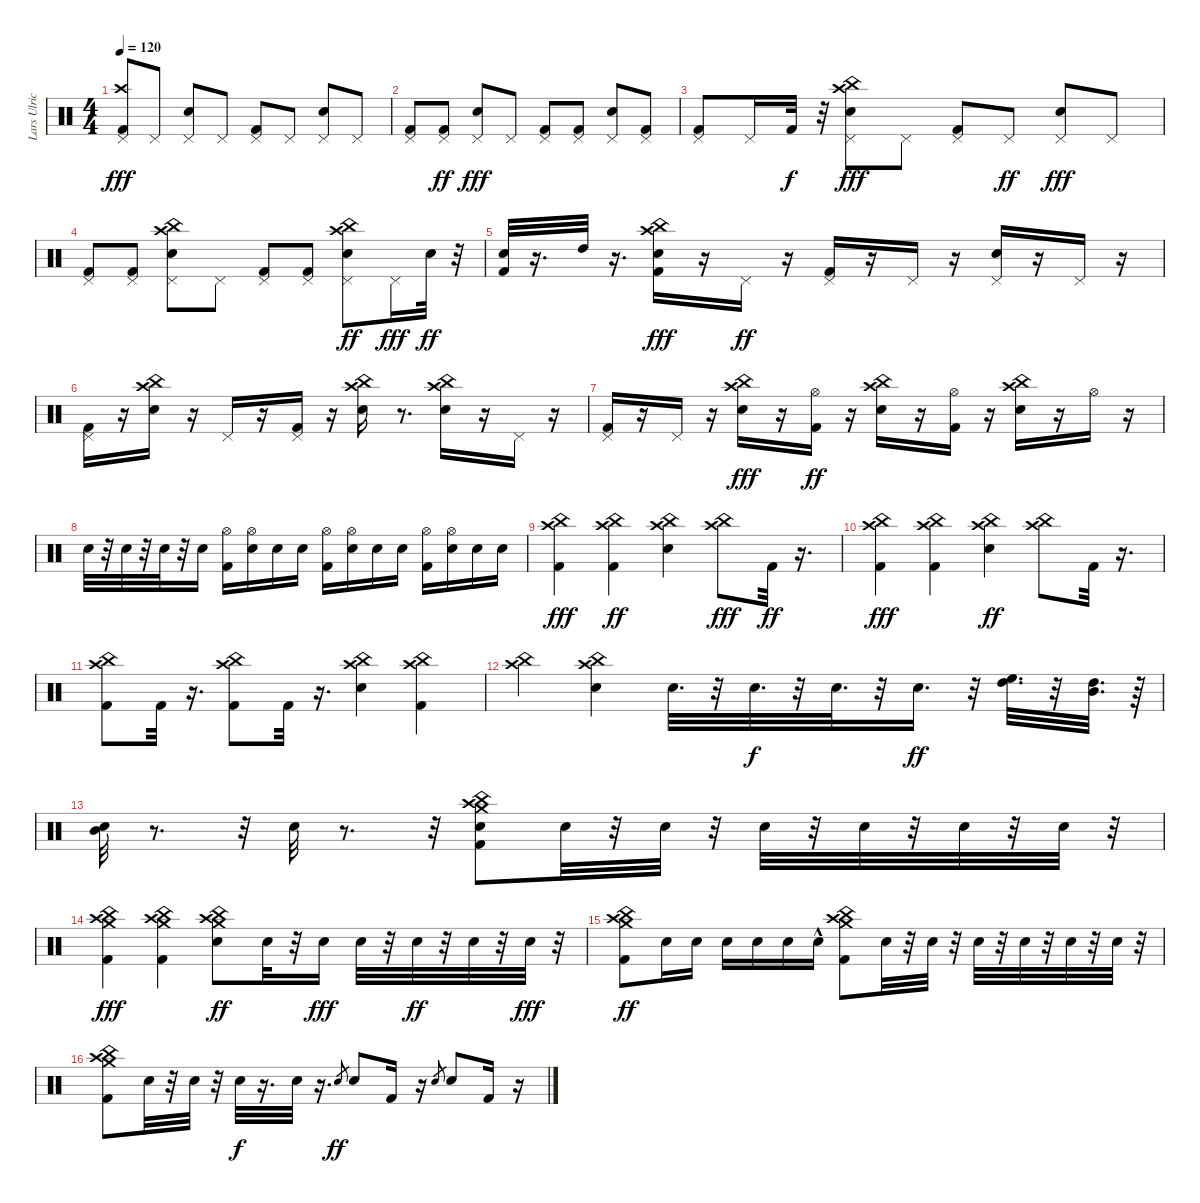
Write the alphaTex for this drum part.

\track ("Lars Ulrich" "Lars Ulric") {instrument percussion}
\staff {score}
\articulation defaults
\ts (4 4)
\tempo 120
\clef neutral
\ks c
("Kick (hit) 2" "Crash high (hit)" "Pedal Hi-Hat (hit)").8{dy fff} "Pedal Hi-Hat (hit)".8 ("Snare (hit) 2" "Pedal Hi-Hat (hit)").8 "Pedal Hi-Hat (hit)".8 ("Kick (hit) 2" "Pedal Hi-Hat (hit)").8 "Pedal Hi-Hat (hit)".8 ("Snare (hit) 2" "Pedal Hi-Hat (hit)").8 "Pedal Hi-Hat (hit)".8 |
("Kick (hit) 2" "Pedal Hi-Hat (hit)").8 ("Kick (hit) 2" "Pedal Hi-Hat (hit)").8{dy ff} ("Snare (hit) 2" "Pedal Hi-Hat (hit)").8{dy fff} "Pedal Hi-Hat (hit)".8 ("Kick (hit) 2" "Pedal Hi-Hat (hit)").8 ("Kick (hit) 2" "Pedal Hi-Hat (hit)").8 ("Snare (hit) 2" "Pedal Hi-Hat (hit)").8 ("Kick (hit) 2" "Pedal Hi-Hat (hit)").8 |
("Kick (hit) 2" "Pedal Hi-Hat (hit)").8 "Pedal Hi-Hat (hit)".16 "Kick (hit) 2".32{dy f} r.32 ("China (hit)" "Crash high (hit)" "Snare (hit) 2" "Pedal Hi-Hat (hit)").8{dy fff} "Pedal Hi-Hat (hit)".8 ("Kick (hit) 2" "Pedal Hi-Hat (hit)").8 "Pedal Hi-Hat (hit)".8{dy ff} ("Snare (hit) 2" "Pedal Hi-Hat (hit)").8{dy fff} "Pedal Hi-Hat (hit)".8 |
("Kick (hit) 2" "Pedal Hi-Hat (hit)").8 ("Kick (hit) 2" "Pedal Hi-Hat (hit)").8 ("China (hit)" "Snare (hit) 2" "Crash high (hit)" "Pedal Hi-Hat (hit)").8 "Pedal Hi-Hat (hit)".8 ("Kick (hit) 2" "Pedal Hi-Hat (hit)").8 ("Kick (hit) 2" "Pedal Hi-Hat (hit)").8 ("China (hit)" "Crash high (hit)" "Pedal Hi-Hat (hit)" "Snare (hit) 2").8{dy ff} "Pedal Hi-Hat (hit)".16{dy fff} "Snare (hit) 2".32{dy ff} r.32 |
("Kick (hit) 2" "Snare (hit) 2").32 r.16{d} "High Tom (hit)".32 r.16{d} ("China (hit)" "Snare (hit) 2" "Kick (hit) 2" "Crash high (hit)").16{dy fff} r.16 "Pedal Hi-Hat (hit)".16{dy ff} r.16 ("Pedal Hi-Hat (hit)" "Kick (hit) 2").16 r.16 "Pedal Hi-Hat (hit)".16 r.16 ("Pedal Hi-Hat (hit)" "Snare (hit) 2").16 r.16 "Pedal Hi-Hat (hit)".16 r.16 |
("Pedal Hi-Hat (hit)" "Kick (hit) 2").16 r.16 ("China (hit)" "Crash high (hit)" "Snare (hit) 2").16 r.16 "Pedal Hi-Hat (hit)".16 r.16 ("Pedal Hi-Hat (hit)" "Kick (hit) 2").16 r.16 ("China (hit)" "Crash high (hit)" "Snare (hit) 2").16 r.8{d} ("China (hit)" "Crash high (hit)" "Snare (hit) 2").16 r.16 "Pedal Hi-Hat (hit)".16 r.16 |
("Pedal Hi-Hat (hit)" "Kick (hit) 2").16 r.16 "Pedal Hi-Hat (hit)".16 r.16 ("China (hit)" "Crash high (hit)" "Snare (hit) 2").16{dy fff} r.16 ("Kick (hit) 2" "Hi-Hat (open)").16{dy ff} r.16 ("China (hit)" "Snare (hit) 2" "Crash high (hit)").16 r.16 ("Kick (hit) 2" "Hi-Hat (open)").16 r.16 ("China (hit)" "Snare (hit) 2" "Crash high (hit)").16 r.16 "Hi-Hat (open)".16 r.16 |
"Snare (hit) 2".32 r.32 "Snare (hit) 2".32 r.32 "Snare (hit) 2".32 r.32 "Snare (hit) 2".16 ("Kick (hit) 2" "Hi-Hat (open)").16 ("Hi-Hat (open)" "Snare (hit) 2").16 "Snare (hit) 2".16 "Snare (hit) 2".16 ("Kick (hit) 2" "Hi-Hat (open)").16 ("Hi-Hat (open)" "Snare (hit) 2").16 "Snare (hit) 2".16 "Snare (hit) 2".16 ("Kick (hit) 2" "Hi-Hat (open)").16 ("Hi-Hat (open)" "Snare (hit) 2").16 "Snare (hit) 2".16 "Snare (hit) 2".16 |
("Kick (hit) 2" "China (hit)" "Crash high (hit)").4{dy fff} ("Kick (hit) 2" "China (hit)" "Crash high (hit)").4{dy ff} ("China (hit)" "Crash high (hit)" "Snare (hit) 2").4 ("China (hit)" "Crash high (hit)").8{dy fff} "Kick (hit) 2".32{dy ff} r.16{d} |
("Kick (hit) 2" "Crash high (hit)" "China (hit)").4{dy fff} ("Kick (hit) 2" "China (hit)" "Crash high (hit)").4 ("Snare (hit) 2" "China (hit)" "Crash high (hit)").4{dy ff} ("China (hit)" "Crash high (hit)").8 "Kick (hit) 2".32 r.16{d} |
("Kick (hit) 2" "China (hit)" "Crash high (hit)").8 "Kick (hit) 2".32 r.16{d} ("Kick (hit) 2" "China (hit)" "Crash high (hit)").8 "Kick (hit) 2".32 r.16{d} ("Snare (hit) 2" "Crash high (hit)" "China (hit)").4 ("Kick (hit) 2" "Crash high (hit)" "China (hit)").4 |
("Crash high (hit)" "China (hit)").4 ("Snare (hit) 2" "Crash high (hit)" "China (hit)").4 "Snare (hit) 2".32{d} r.32 "Snare (hit) 2".32{d dy f} r.32 "Snare (hit) 2".32{d} r.32 "Snare (hit) 2".16{d dy ff} r.32 ("High Tom (hit)" "High Floor Tom (hit)").32{d} r.32 ("Mid Tom (hit)" "High Tom (hit)").32{d} r.64 |
("Snare (hit) 2" "Mid Tom (hit)").32 r.8{d} r.32 "Snare (hit) 2".32 r.8{d} r.32 ("Crash medium (hit)" "China (hit)" "Crash high (hit)" "Kick (hit) 2" "Snare (hit) 2").8 "Snare (hit) 2".32 r.32 "Snare (hit) 2".32 r.32 "Snare (hit) 2".32 r.32 "Snare (hit) 2".32 r.32 "Snare (hit) 2".32 r.32 "Snare (hit) 2".32 r.32 |
("Crash medium (hit)" "Kick (hit) 2" "Crash high (hit)" "China (hit)").4{dy fff} ("Crash medium (hit)" "Kick (hit) 2" "China (hit)" "Crash high (hit)").4 ("Crash medium (hit)" "Snare (hit) 2" "China (hit)" "Crash high (hit)").8{dy ff} "Snare (hit) 2".32 r.32 "Snare (hit) 2".16{dy fff} "Snare (hit) 2".32 r.32 "Snare (hit) 2".32{dy ff} r.32 "Snare (hit) 2".32 r.32 "Snare (hit) 2".32{dy fff} r.32 |
("Crash medium (hit)" "China (hit)" "Crash high (hit)" "Kick (hit) 2").8{dy ff} "Snare (hit) 2".16 "Snare (hit) 2".16 "Snare (hit) 2".16 "Snare (hit) 2".16 "Snare (hit) 2".16 "Snare (hit) 2"{hac}.16 ("Crash medium (hit)" "Kick (hit) 2" "Crash high (hit)" "China (hit)").8 "Snare (hit) 2".32 r.32 "Snare (hit) 2".32 r.32 "Snare (hit) 2".32 r.32 "Snare (hit) 2".32 r.32 "Snare (hit) 2".32 r.32 "Snare (hit) 2".32 r.32 |
("Crash medium (hit)" "China (hit)" "Crash high (hit)" "Kick (hit) 2").8 "Snare (hit) 2".32 r.32 "Snare (hit) 2".32 r.32 "Snare (hit) 2".32{dy f} r.16{d} "Snare (hit) 2".32 r.16{d} "Snare (hit) 2".8{gr dy ff} "Snare (hit) 2".8 "Kick (hit) 2".16 r.16 "Snare (hit) 2".8{gr} "Snare (hit) 2".8 "Kick (hit) 2".16 r.16
